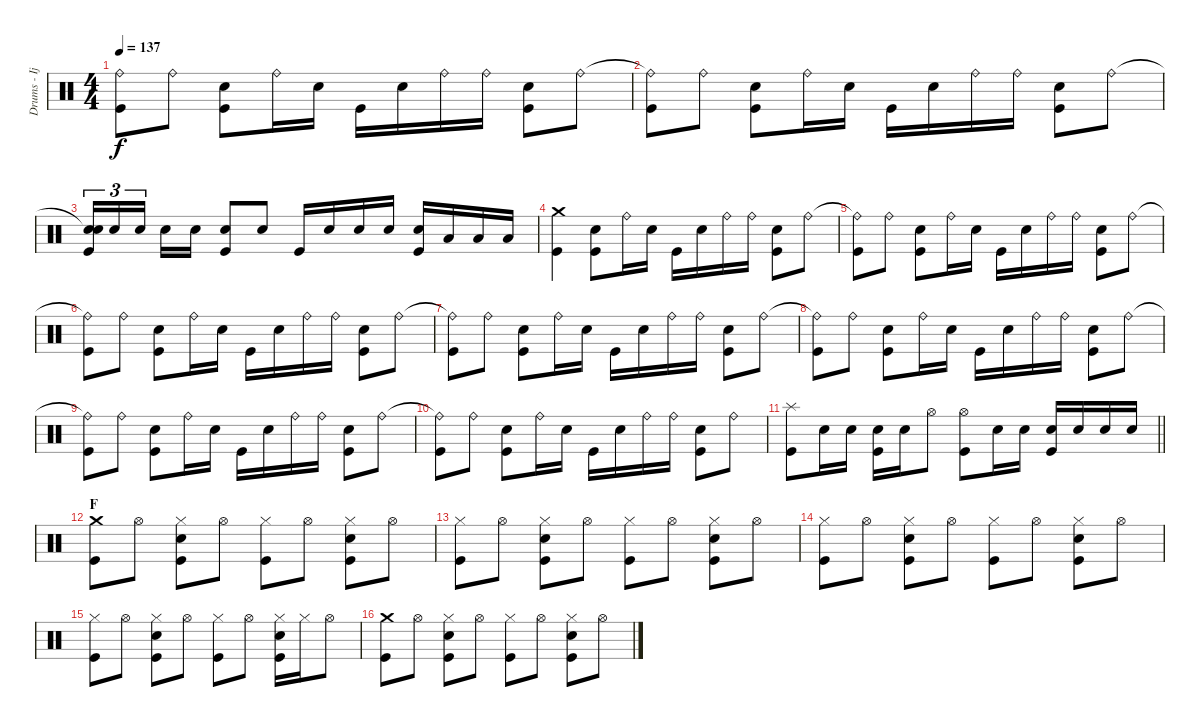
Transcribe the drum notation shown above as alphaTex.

\track ("Drums - Ijichi" "Drums - Ij") {instrument percussion}
\staff {score}
\articulation defaults
\ts (4 4)
\tempo 137
\clef neutral
\ks c
("Ride (bell)"{t} "Kick (hit)").8{dy f} "Ride (bell)".8 ("Electric Snare (hit)" "Kick (hit)").8 "Ride (bell)".16 "Electric Snare (hit)".16 "Kick (hit)".16 "Electric Snare (hit)".16 "Ride (bell)".16 "Ride (bell)".16 ("Electric Snare (hit)" "Kick (hit)").8 "Ride (bell)".8 |
("Ride (bell)"{t} "Kick (hit)").8 "Ride (bell)".8 ("Electric Snare (hit)" "Kick (hit)").8 "Ride (bell)".16 "Electric Snare (hit)".16 "Kick (hit)".16 "Electric Snare (hit)".16 "Ride (bell)".16 "Ride (bell)".16 ("Electric Snare (hit)" "Kick (hit)").8 "Ride (bell)".8 |
("Snare (hit)"{t} "Electric Snare (hit)" "Kick (hit)").16{tu (3 2)} "Electric Snare (hit)".16{tu (3 2)} "Electric Snare (hit)".16{tu (3 2) beam splitsecondary} "Electric Snare (hit)".16 "Electric Snare (hit)".16 ("Electric Snare (hit)" "Kick (hit)").8 "Electric Snare (hit)".8 "Kick (hit)".16 "Electric Snare (hit)".16 "Electric Snare (hit)".16 "Electric Snare (hit)".16 ("Electric Snare (hit)" "Kick (hit)").16 "Low Tom (hit)".16 "Low Tom (hit)".16 "Low Tom (hit)".16 |
("Crash medium (hit)" "Kick (hit)").4 ("Electric Snare (hit)" "Kick (hit)").8 "Ride (bell)".16 "Electric Snare (hit)".16 "Kick (hit)".16 "Electric Snare (hit)".16 "Ride (bell)".16 "Ride (bell)".16 ("Electric Snare (hit)" "Kick (hit)").8 "Ride (bell)".8 |
("Ride (bell)"{t} "Kick (hit)").8 "Ride (bell)".8 ("Electric Snare (hit)" "Kick (hit)").8 "Ride (bell)".16 "Electric Snare (hit)".16 "Kick (hit)".16 "Electric Snare (hit)".16 "Ride (bell)".16 "Ride (bell)".16 ("Electric Snare (hit)" "Kick (hit)").8 "Ride (bell)".8 |
("Ride (bell)"{t} "Kick (hit)").8 "Ride (bell)".8 ("Electric Snare (hit)" "Kick (hit)").8 "Ride (bell)".16 "Electric Snare (hit)".16 "Kick (hit)".16 "Electric Snare (hit)".16 "Ride (bell)".16 "Ride (bell)".16 ("Electric Snare (hit)" "Kick (hit)").8 "Ride (bell)".8 |
("Ride (bell)"{t} "Kick (hit)").8 "Ride (bell)".8 ("Electric Snare (hit)" "Kick (hit)").8 "Ride (bell)".16 "Electric Snare (hit)".16 "Kick (hit)".16 "Electric Snare (hit)".16 "Ride (bell)".16 "Ride (bell)".16 ("Electric Snare (hit)" "Kick (hit)").8 "Ride (bell)".8 |
("Ride (bell)"{t} "Kick (hit)").8 "Ride (bell)".8 ("Electric Snare (hit)" "Kick (hit)").8 "Ride (bell)".16 "Electric Snare (hit)".16 "Kick (hit)".16 "Electric Snare (hit)".16 "Ride (bell)".16 "Ride (bell)".16 ("Electric Snare (hit)" "Kick (hit)").8 "Ride (bell)".8 |
("Ride (bell)"{t} "Kick (hit)").8 "Ride (bell)".8 ("Electric Snare (hit)" "Kick (hit)").8 "Ride (bell)".16 "Electric Snare (hit)".16 "Kick (hit)".16 "Electric Snare (hit)".16 "Ride (bell)".16 "Ride (bell)".16 ("Electric Snare (hit)" "Kick (hit)").8 "Ride (bell)".8 |
("Ride (bell)"{t} "Kick (hit)").8 "Ride (bell)".8 ("Electric Snare (hit)" "Kick (hit)").8 "Ride (bell)".16 "Electric Snare (hit)".16 "Kick (hit)".16 "Electric Snare (hit)".16 "Ride (bell)".16 "Ride (bell)".16 ("Electric Snare (hit)" "Kick (hit)").8 "Ride (bell)".8 |
\barLineRight lightlight
("Splash (hit)" "Kick (hit)").8 "Electric Snare (hit)".16 "Electric Snare (hit)".16 ("Electric Snare (hit)" "Kick (hit)").16 "Electric Snare (hit)".16 "Hi-Hat (open)".8 ("Hi-Hat (open)" "Kick (hit)").8 "Electric Snare (hit)".16 "Electric Snare (hit)".16 ("Electric Snare (hit)" "Kick (hit)").16 "Electric Snare (hit)".16 "Electric Snare (hit)".16 "Electric Snare (hit)".16 |
\section ("" "F")
("Crash medium (hit)" "Kick (hit)").8 "Hi-Hat (open)".8 ("Hi-Hat (closed)" "Electric Snare (hit)" "Kick (hit)").8 "Hi-Hat (open)".8 ("Hi-Hat (closed)" "Kick (hit)").8 "Hi-Hat (open)".8 ("Hi-Hat (closed)" "Electric Snare (hit)" "Kick (hit)").8 "Hi-Hat (open)".8 |
("Hi-Hat (closed)" "Kick (hit)").8 "Hi-Hat (open)".8 ("Hi-Hat (closed)" "Electric Snare (hit)" "Kick (hit)").8 "Hi-Hat (open)".8 ("Hi-Hat (closed)" "Kick (hit)").8 "Hi-Hat (open)".8 ("Hi-Hat (closed)" "Electric Snare (hit)" "Kick (hit)").8 "Hi-Hat (open)".8 |
("Hi-Hat (closed)" "Kick (hit)").8 "Hi-Hat (open)".8 ("Hi-Hat (closed)" "Electric Snare (hit)" "Kick (hit)").8 "Hi-Hat (open)".8 ("Hi-Hat (closed)" "Kick (hit)").8 "Hi-Hat (open)".8 ("Hi-Hat (closed)" "Electric Snare (hit)" "Kick (hit)").8 "Hi-Hat (open)".8 |
("Hi-Hat (closed)" "Kick (hit)").8 "Hi-Hat (open)".8 ("Hi-Hat (closed)" "Electric Snare (hit)" "Kick (hit)").8 "Hi-Hat (open)".8 ("Hi-Hat (closed)" "Kick (hit)").8 "Hi-Hat (open)".8 ("Hi-Hat (closed)" "Electric Snare (hit)" "Kick (hit)").16 "Hi-Hat (closed)".16 "Hi-Hat (open)".8 |
("Crash medium (hit)" "Kick (hit)").8 "Hi-Hat (open)".8 ("Hi-Hat (closed)" "Electric Snare (hit)" "Kick (hit)").8 "Hi-Hat (open)".8 ("Hi-Hat (closed)" "Kick (hit)").8 "Hi-Hat (open)".8 ("Hi-Hat (closed)" "Electric Snare (hit)" "Kick (hit)").8 "Hi-Hat (open)".8
